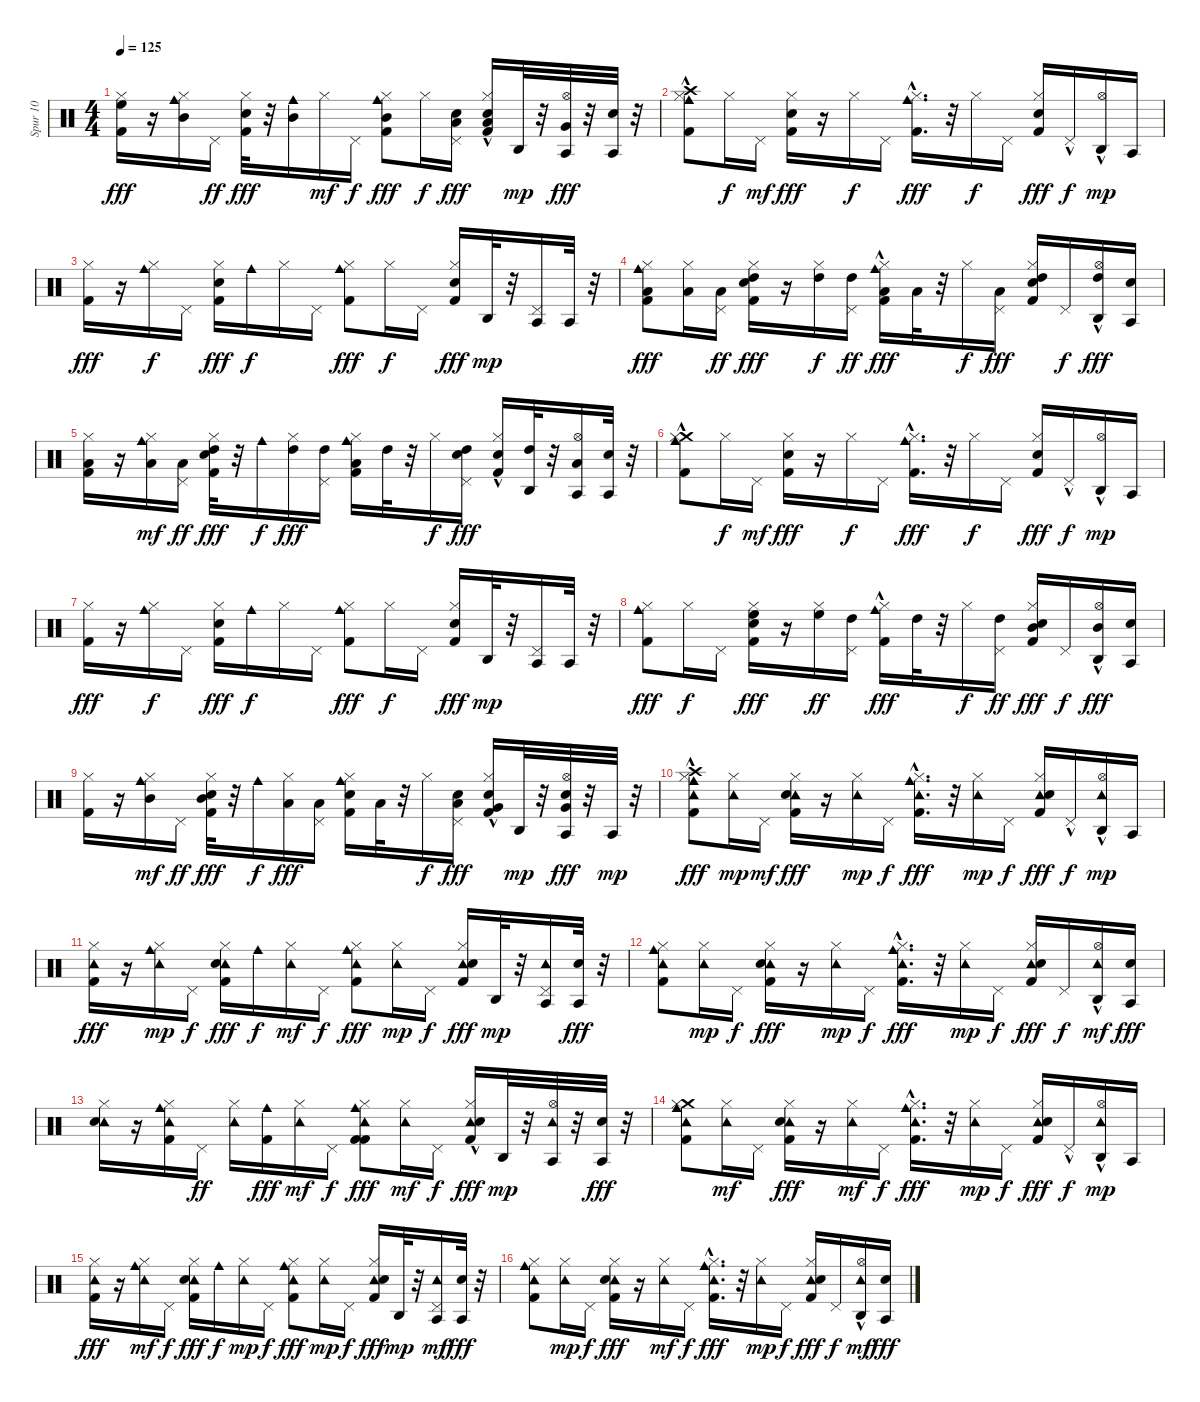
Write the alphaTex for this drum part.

\track ("Spur 10" "Spur 10") {instrument percussion}
\staff {score}
\articulation defaults
\ts (4 4)
\tempo 125
\clef neutral
\ks c
("High Floor Tom (hit)" "Kick (hit) 2" "Hi-Hat (closed)").16{dy fff} r.16 ("Cowbell medium (hit)" "Hi-Hat (closed)" "Mid Tom (hit)").16 "Pedal Hi-Hat (hit)".16{dy ff} ("Electric Snare (hit)" "Kick (hit) 2" "Hi-Hat (closed)").32{dy fff} r.32 ("Cowbell medium (hit)" "Mid Tom (hit)").16 "Hi-Hat (closed)".16{dy mf} "Pedal Hi-Hat (hit)".16{dy f} ("Cowbell medium (hit)" "Mid Tom (hit)" "Hi-Hat (closed)" "Kick (hit) 2").8{dy fff} "Hi-Hat (closed)".16{dy f} ("Low Tom (hit)" "Pedal Hi-Hat (hit)" "Electric Snare (hit)").16{dy fff} ("Low Tom (hit)" "Hi-Hat (closed)" "Kick (hit) 2"{hac} "Electric Snare (hit)").16 "Agogo high (hit)".32{dy mp} r.32 ("Agogo tow (hit)" "Hi-Hat (open)" "Very Low Tom (hit)").32{dy fff} r.32 ("Agogo tow (hit)" "Electric Snare (hit)").32 r.32 |
("Cowbell medium (hit)" "Crash high (hit)"{hac} "Hi-Hat (closed)" "Kick (hit) 2").8 "Hi-Hat (closed)".16{dy f} "Pedal Hi-Hat (hit)".16{dy mf} ("Electric Snare (hit)" "Kick (hit) 2" "Hi-Hat (closed)").16{dy fff} r.16 "Hi-Hat (closed)".16{dy f} "Pedal Hi-Hat (hit)".16 ("Cowbell medium (hit)"{hac} "Kick (hit) 2" "Hi-Hat (closed)").16{d dy fff} r.32 "Hi-Hat (closed)".16{dy f} "Pedal Hi-Hat (hit)".16 ("Kick (hit) 2" "Electric Snare (hit)" "Hi-Hat (closed)").16{dy fff} "Pedal Hi-Hat (hit)"{hac}.16{dy f} ("Agogo high (hit)" "Hi-Hat (open)"{hac}).16{dy mp} "Agogo tow (hit)".16 |
("Kick (hit) 2" "Hi-Hat (closed)").16{dy fff} r.16 ("Cowbell medium (hit)" "Hi-Hat (closed)").16{dy f} "Pedal Hi-Hat (hit)".16 ("Hi-Hat (closed)" "Kick (hit) 2" "Electric Snare (hit)").16{dy fff} "Cowbell medium (hit)".16{dy f} "Hi-Hat (closed)".16 "Pedal Hi-Hat (hit)".16 ("Cowbell medium (hit)" "Kick (hit) 2" "Hi-Hat (closed)").8{dy fff} "Hi-Hat (closed)".16{dy f} "Pedal Hi-Hat (hit)".16 ("Electric Snare (hit)" "Kick (hit) 2" "Hi-Hat (closed)").16{dy fff} "Agogo high (hit)".32{dy mp} r.32 ("Agogo tow (hit)" "Pedal Hi-Hat (hit)").16 "Agogo tow (hit)".32 r.32 |
("Cowbell medium (hit)" "Kick (hit) 2" "Hi-Hat (closed)" "Low Tom (hit)").8{dy fff} ("Hi-Hat (closed)" "Low Tom (hit)").16 ("Low Tom (hit)" "Pedal Hi-Hat (hit)").16{dy ff} ("Electric Snare (hit)" "Kick (hit) 2" "Hi-Hat (closed)" "High Tom (hit)").16{dy fff} r.16 ("High Tom (hit)" "Hi-Hat (closed)").16{dy f} ("High Tom (hit)" "Pedal Hi-Hat (hit)").16{dy ff} ("Cowbell medium (hit)"{hac} "Low Tom (hit)" "Hi-Hat (closed)" "Kick (hit) 2").16{dy fff} "Low Tom (hit)".32 r.32 "Hi-Hat (closed)".16{dy f} ("Low Tom (hit)" "Pedal Hi-Hat (hit)").16{dy fff} ("High Tom (hit)" "Kick (hit) 2" "Electric Snare (hit)" "Hi-Hat (closed)").16 "Pedal Hi-Hat (hit)".16{dy f} ("Agogo high (hit)" "High Tom (hit)" "Hi-Hat (open)"{hac}).16{dy fff} ("Agogo tow (hit)" "Electric Snare (hit)").16 |
("Low Tom (hit)" "Kick (hit) 2" "Hi-Hat (closed)").16 r.16 ("Cowbell medium (hit)" "Low Tom (hit)" "Hi-Hat (closed)").16{dy mf} ("Low Tom (hit)" "Pedal Hi-Hat (hit)").16{dy ff} ("Electric Snare (hit)" "Kick (hit) 2" "Hi-Hat (closed)" "High Tom (hit)").32{dy fff} r.32 "Cowbell medium (hit)".16{dy f} ("Hi-Hat (closed)" "High Tom (hit)").16{dy fff} ("High Tom (hit)" "Pedal Hi-Hat (hit)").16 ("Cowbell medium (hit)" "Low Tom (hit)" "Hi-Hat (closed)" "Kick (hit) 2").16 "High Tom (hit)".32 r.32 "Hi-Hat (closed)".16{dy f} ("Pedal Hi-Hat (hit)" "Electric Snare (hit)" "High Tom (hit)").16{dy fff} ("Hi-Hat (closed)" "Kick (hit) 2"{hac} "Electric Snare (hit)").16 ("Agogo high (hit)" "High Tom (hit)").32 r.32 ("Agogo tow (hit)" "Low Tom (hit)" "Hi-Hat (open)").16 ("Agogo tow (hit)" "Electric Snare (hit)").32 r.32 |
("Cowbell medium (hit)" "Crash medium (hit)"{hac} "Hi-Hat (closed)" "Kick (hit) 2").8 "Hi-Hat (closed)".16{dy f} "Pedal Hi-Hat (hit)".16{dy mf} ("Electric Snare (hit)" "Kick (hit) 2" "Hi-Hat (closed)").16{dy fff} r.16 "Hi-Hat (closed)".16{dy f} "Pedal Hi-Hat (hit)".16 ("Cowbell medium (hit)"{hac} "Kick (hit) 2" "Hi-Hat (closed)").16{d dy fff} r.32 "Hi-Hat (closed)".16{dy f} "Pedal Hi-Hat (hit)".16 ("Kick (hit) 2" "Electric Snare (hit)" "Hi-Hat (closed)").16{dy fff} "Pedal Hi-Hat (hit)"{hac}.16{dy f} ("Agogo high (hit)" "Hi-Hat (open)"{hac}).16{dy mp} "Agogo tow (hit)".16 |
("Kick (hit) 2" "Hi-Hat (closed)").16{dy fff} r.16 ("Cowbell medium (hit)" "Hi-Hat (closed)").16{dy f} "Pedal Hi-Hat (hit)".16 ("Hi-Hat (closed)" "Kick (hit) 2" "Electric Snare (hit)").16{dy fff} "Cowbell medium (hit)".16{dy f} "Hi-Hat (closed)".16 "Pedal Hi-Hat (hit)".16 ("Cowbell medium (hit)" "Kick (hit) 2" "Hi-Hat (closed)").8{dy fff} "Hi-Hat (closed)".16{dy f} "Pedal Hi-Hat (hit)".16 ("Electric Snare (hit)" "Kick (hit) 2" "Hi-Hat (closed)").16{dy fff} "Agogo high (hit)".32{dy mp} r.32 ("Agogo tow (hit)" "Pedal Hi-Hat (hit)").16 "Agogo tow (hit)".32 r.32 |
("Cowbell medium (hit)" "Kick (hit) 2" "Hi-Hat (closed)").8{dy fff} "Hi-Hat (closed)".16{dy f} "Pedal Hi-Hat (hit)".16 ("Electric Snare (hit)" "Kick (hit) 2" "Hi-Hat (closed)" "High Floor Tom (hit)").16{dy fff} r.16 ("Hi-Hat (closed)" "High Floor Tom (hit)").16{dy ff} ("Pedal Hi-Hat (hit)" "High Tom (hit)").16 ("Cowbell medium (hit)"{hac} "Hi-Hat (closed)" "Kick (hit) 2").16{dy fff} "High Tom (hit)".32 r.32 "Hi-Hat (closed)".16{dy f} ("High Tom (hit)" "Pedal Hi-Hat (hit)").16{dy ff} ("Mid Tom (hit)" "Kick (hit) 2" "Electric Snare (hit)" "Hi-Hat (closed)").16{dy fff} "Pedal Hi-Hat (hit)".16{dy f} ("Agogo high (hit)" "Mid Tom (hit)" "Hi-Hat (open)"{hac}).16{dy fff} ("Agogo tow (hit)" "Electric Snare (hit)").16 |
("Kick (hit) 2" "Hi-Hat (closed)").16 r.16 ("Cowbell medium (hit)" "Mid Tom (hit)" "Hi-Hat (closed)").16{dy mf} "Pedal Hi-Hat (hit)".16{dy ff} ("Electric Snare (hit)" "Kick (hit) 2" "Hi-Hat (closed)" "Mid Tom (hit)").32{dy fff} r.32 "Cowbell medium (hit)".16{dy f} ("Hi-Hat (closed)" "Low Tom (hit)").16{dy fff} ("Pedal Hi-Hat (hit)" "Low Tom (hit)").16 ("Cowbell medium (hit)" "Electric Snare (hit)" "Hi-Hat (closed)" "Kick (hit) 2").16 "Low Tom (hit)".32 r.32 "Hi-Hat (closed)".16{dy f} ("Low Tom (hit)" "Pedal Hi-Hat (hit)" "Electric Snare (hit)").16{dy fff} ("Very Low Tom (hit)" "Hi-Hat (closed)" "Kick (hit) 2"{hac} "Electric Snare (hit)").16 "Agogo high (hit)".32{dy mp} r.32 ("Agogo tow (hit)" "Very Low Tom (hit)" "Electric Snare (hit)" "Hi-Hat (open)").32{dy fff} r.32 "Agogo tow (hit)".32{dy mp} r.32 |
("Tambourine (hit)" "Cowbell medium (hit)" "Crash high (hit)"{hac} "Hi-Hat (closed)" "Kick (hit) 2").8{dy fff} ("Tambourine (hit)" "Hi-Hat (closed)").16{dy mp} "Pedal Hi-Hat (hit)".16{dy mf} ("Tambourine (hit)" "Electric Snare (hit)" "Kick (hit) 2" "Hi-Hat (closed)").16{dy fff} r.16 ("Tambourine (hit)" "Hi-Hat (closed)").16{dy mp} "Pedal Hi-Hat (hit)".16{dy f} ("Tambourine (hit)" "Cowbell medium (hit)"{hac} "Kick (hit) 2" "Hi-Hat (closed)").16{d dy fff} r.32 ("Tambourine (hit)" "Hi-Hat (closed)").16{dy mp} "Pedal Hi-Hat (hit)".16{dy f} ("Tambourine (hit)" "Kick (hit) 2" "Electric Snare (hit)" "Hi-Hat (closed)").16{dy fff} "Pedal Hi-Hat (hit)"{hac}.16{dy f} ("Agogo high (hit)" "Tambourine (hit)" "Hi-Hat (open)"{hac}).16{dy mp} "Agogo tow (hit)".16 |
("Tambourine (hit)" "Kick (hit) 2" "Hi-Hat (closed)").16{dy fff} r.16 ("Cowbell medium (hit)" "Tambourine (hit)" "Hi-Hat (closed)").16{dy mp} "Pedal Hi-Hat (hit)".16{dy f} ("Tambourine (hit)" "Hi-Hat (closed)" "Kick (hit) 2" "Electric Snare (hit)").16{dy fff} "Cowbell medium (hit)".16{dy f} ("Tambourine (hit)" "Hi-Hat (closed)").16{dy mf} "Pedal Hi-Hat (hit)".16{dy f} ("Cowbell medium (hit)" "Tambourine (hit)" "Kick (hit) 2" "Hi-Hat (closed)").8{dy fff} ("Tambourine (hit)" "Hi-Hat (closed)").16{dy mp} "Pedal Hi-Hat (hit)".16{dy f} ("Tambourine (hit)" "Electric Snare (hit)" "Kick (hit) 2" "Hi-Hat (closed)").16{dy fff} "Agogo high (hit)".32{dy mp} r.32 ("Agogo tow (hit)" "Tambourine (hit)" "Pedal Hi-Hat (hit)").16 ("Agogo tow (hit)" "Electric Snare (hit)").32{dy fff} r.32 |
("Cowbell medium (hit)" "Tambourine (hit)" "Kick (hit) 2" "Hi-Hat (closed)").8 ("Tambourine (hit)" "Hi-Hat (closed)").16{dy mp} "Pedal Hi-Hat (hit)".16{dy f} ("Tambourine (hit)" "Electric Snare (hit)" "Kick (hit) 2" "Hi-Hat (closed)").16{dy fff} r.16 ("Tambourine (hit)" "Hi-Hat (closed)").16{dy mp} "Pedal Hi-Hat (hit)".16{dy f} ("Cowbell medium (hit)"{hac} "Tambourine (hit)" "Hi-Hat (closed)" "Kick (hit) 2").16{d dy fff} r.32 ("Tambourine (hit)" "Hi-Hat (closed)").16{dy mp} "Pedal Hi-Hat (hit)".16{dy f} ("Tambourine (hit)" "Kick (hit) 2" "Electric Snare (hit)" "Hi-Hat (closed)").16{dy fff} "Pedal Hi-Hat (hit)".16{dy f} ("Agogo high (hit)" "Tambourine (hit)" "Hi-Hat (open)"{hac}).16{dy mf} ("Agogo tow (hit)" "Electric Snare (hit)").16{dy fff} |
("Tambourine (hit)" "Electric Snare (hit)" "Hi-Hat (closed)").16 r.16 ("Tambourine (hit)" "Cowbell medium (hit)" "Hi-Hat (closed)" "Kick (hit) 2").16 "Pedal Hi-Hat (hit)".16{dy ff} ("Tambourine (hit)" "Hi-Hat (closed)").16 ("Cowbell medium (hit)" "Kick (hit) 2").16{dy fff} ("Tambourine (hit)" "Hi-Hat (closed)").16{dy mf} "Pedal Hi-Hat (hit)".16{dy f} ("Tambourine (hit)" "Cowbell medium (hit)" "Kick (hit) 2" "Hi-Hat (closed)" "Kick (hit) 2").8{dy fff} ("Tambourine (hit)" "Hi-Hat (closed)").16{dy mf} "Pedal Hi-Hat (hit)".16{dy f} ("Tambourine (hit)" "Hi-Hat (closed)" "Kick (hit) 2"{hac} "Electric Snare (hit)").16{dy fff} "Agogo high (hit)".32{dy mp} r.32 ("Agogo tow (hit)" "Tambourine (hit)" "Hi-Hat (open)").32 r.32 ("Agogo tow (hit)" "Electric Snare (hit)").32{dy fff} r.32 |
("Tambourine (hit)" "Cowbell medium (hit)" "Crash medium (hit)" "Hi-Hat (closed)" "Kick (hit) 2").8 ("Tambourine (hit)" "Hi-Hat (closed)").16{dy mf} "Pedal Hi-Hat (hit)".16 ("Tambourine (hit)" "Electric Snare (hit)" "Kick (hit) 2" "Hi-Hat (closed)").16{dy fff} r.16 ("Tambourine (hit)" "Hi-Hat (closed)").16{dy mf} "Pedal Hi-Hat (hit)".16{dy f} ("Tambourine (hit)" "Cowbell medium (hit)"{hac} "Kick (hit) 2" "Hi-Hat (closed)").16{d dy fff} r.32 ("Tambourine (hit)" "Hi-Hat (closed)").16{dy mp} "Pedal Hi-Hat (hit)".16{dy f} ("Tambourine (hit)" "Kick (hit) 2" "Electric Snare (hit)" "Hi-Hat (closed)").16{dy fff} "Pedal Hi-Hat (hit)"{hac}.16{dy f} ("Agogo high (hit)" "Tambourine (hit)" "Hi-Hat (open)"{hac}).16{dy mp} "Agogo tow (hit)".16 |
("Tambourine (hit)" "Kick (hit) 2" "Hi-Hat (closed)").16{dy fff} r.16 ("Cowbell medium (hit)" "Tambourine (hit)" "Hi-Hat (closed)").16{dy mf} "Pedal Hi-Hat (hit)".16{dy f} ("Tambourine (hit)" "Hi-Hat (closed)" "Kick (hit) 2" "Electric Snare (hit)").16{dy fff} "Cowbell medium (hit)".16{dy f} ("Tambourine (hit)" "Hi-Hat (closed)").16{dy mp} "Pedal Hi-Hat (hit)".16{dy f} ("Cowbell medium (hit)" "Tambourine (hit)" "Kick (hit) 2" "Hi-Hat (closed)").8{dy fff} ("Tambourine (hit)" "Hi-Hat (closed)").16{dy mp} "Pedal Hi-Hat (hit)".16{dy f} ("Tambourine (hit)" "Electric Snare (hit)" "Kick (hit) 2" "Hi-Hat (closed)").16{dy fff} "Agogo high (hit)".32{dy mp} r.32 ("Agogo tow (hit)" "Tambourine (hit)" "Pedal Hi-Hat (hit)").16{dy mf} ("Agogo tow (hit)" "Electric Snare (hit)").32{dy fff} r.32 |
("Tambourine (hit)" "Cowbell medium (hit)" "Kick (hit) 2" "Hi-Hat (closed)").8 ("Tambourine (hit)" "Hi-Hat (closed)").16{dy mp} "Pedal Hi-Hat (hit)".16{dy f} ("Tambourine (hit)" "Electric Snare (hit)" "Kick (hit) 2" "Hi-Hat (closed)").16{dy fff} r.16 ("Tambourine (hit)" "Hi-Hat (closed)").16{dy mf} "Pedal Hi-Hat (hit)".16{dy f} ("Tambourine (hit)" "Cowbell medium (hit)"{hac} "Hi-Hat (closed)" "Kick (hit) 2").16{d dy fff} r.32 ("Tambourine (hit)" "Hi-Hat (closed)").16{dy mp} "Pedal Hi-Hat (hit)".16{dy f} ("Tambourine (hit)" "Kick (hit) 2" "Electric Snare (hit)" "Hi-Hat (closed)").16{dy fff} "Pedal Hi-Hat (hit)".16{dy f} ("Agogo high (hit)" "Tambourine (hit)" "Hi-Hat (open)"{hac}).16{dy mf} ("Agogo tow (hit)" "Electric Snare (hit)").16{dy fff}
